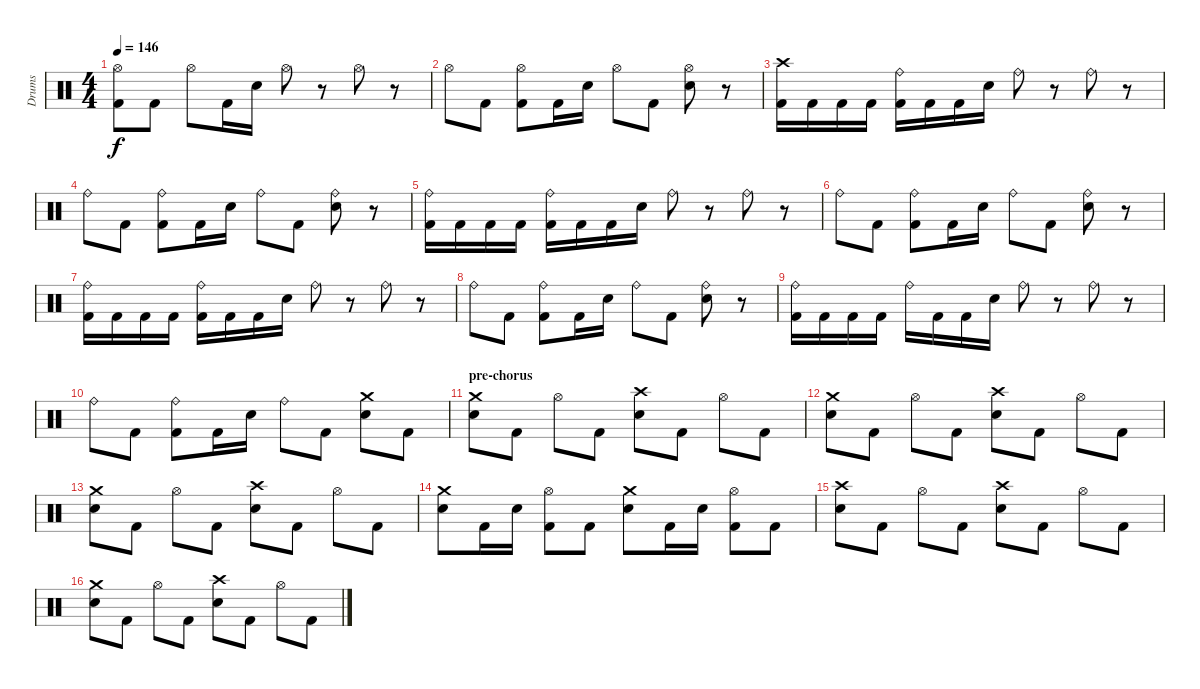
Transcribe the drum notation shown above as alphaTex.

\track ("Drums" "Drums") {instrument percussion}
\staff {score}
\articulation defaults
\ts (4 4)
\tempo 146
\clef neutral
\ks c
("Hi-Hat (open)" "Kick (hit) 2").8{dy f} "Kick (hit) 2".8 "Hi-Hat (open)".8 "Kick (hit) 2".16 "Electric Snare (hit)".16 "Hi-Hat (open)".8 r.8 "Hi-Hat (open)".8 r.8 |
"Hi-Hat (open)".8 "Kick (hit) 2".8 ("Hi-Hat (open)" "Kick (hit) 2").8 "Kick (hit) 2".16 "Electric Snare (hit)".16 "Hi-Hat (open)".8 "Kick (hit) 2".8 ("Hi-Hat (open)" "Electric Snare (hit)").8 r.8 |
("Crash high (hit)" "Kick (hit) 2").16 "Kick (hit) 2".16 "Kick (hit) 2".16 "Kick (hit) 2".16 ("Ride (bell)" "Kick (hit) 2").16 "Kick (hit) 2".16 "Kick (hit) 2".16 "Electric Snare (hit)".16 "Ride (bell)".8 r.8 "Ride (bell)".8 r.8 |
"Ride (bell)".8 "Kick (hit) 2".8 ("Ride (bell)" "Kick (hit) 2").8 "Kick (hit) 2".16 "Electric Snare (hit)".16 "Ride (bell)".8 "Kick (hit) 2".8 ("Ride (bell)" "Electric Snare (hit)").8 r.8 |
("Ride (bell)" "Kick (hit) 2").16 "Kick (hit) 2".16 "Kick (hit) 2".16 "Kick (hit) 2".16 ("Ride (bell)" "Kick (hit) 2").16 "Kick (hit) 2".16 "Kick (hit) 2".16 "Electric Snare (hit)".16 "Ride (bell)".8 r.8 "Ride (bell)".8 r.8 |
"Ride (bell)".8 "Kick (hit) 2".8 ("Ride (bell)" "Kick (hit) 2").8 "Kick (hit) 2".16 "Electric Snare (hit)".16 "Ride (bell)".8 "Kick (hit) 2".8 ("Ride (bell)" "Electric Snare (hit)").8 r.8 |
("Ride (bell)" "Kick (hit) 2").16 "Kick (hit) 2".16 "Kick (hit) 2".16 "Kick (hit) 2".16 ("Ride (bell)" "Kick (hit) 2").16 "Kick (hit) 2".16 "Kick (hit) 2".16 "Electric Snare (hit)".16 "Ride (bell)".8 r.8 "Ride (bell)".8 r.8 |
"Ride (bell)".8 "Kick (hit) 2".8 ("Ride (bell)" "Kick (hit) 2").8 "Kick (hit) 2".16 "Electric Snare (hit)".16 "Ride (bell)".8 "Kick (hit) 2".8 ("Ride (bell)" "Electric Snare (hit)").8 r.8 |
("Ride (bell)" "Kick (hit) 2").16 "Kick (hit) 2".16 "Kick (hit) 2".16 "Kick (hit) 2".16 "Ride (bell)".16 "Kick (hit) 2".16 "Kick (hit) 2".16 "Electric Snare (hit)".16 "Ride (bell)".8 r.8 "Ride (bell)".8 r.8 |
"Ride (bell)".8 "Kick (hit) 2".8 ("Ride (bell)" "Kick (hit) 2").8 "Kick (hit) 2".16 "Electric Snare (hit)".16 "Ride (bell)".8 "Kick (hit) 2".8 ("Crash medium (hit)" "Electric Snare (hit)").8 "Kick (hit) 2".8 |
\section ("" "pre-chorus")
("Crash medium (hit)" "Electric Snare (hit)").8 "Kick (hit) 2".8 "Hi-Hat (open)".8 "Kick (hit) 2".8 ("Crash high (hit)" "Electric Snare (hit)").8 "Kick (hit) 2".8 "Hi-Hat (open)".8 "Kick (hit) 2".8 |
("Crash medium (hit)" "Electric Snare (hit)").8 "Kick (hit) 2".8 "Hi-Hat (open)".8 "Kick (hit) 2".8 ("Crash high (hit)" "Electric Snare (hit)").8 "Kick (hit) 2".8 "Hi-Hat (open)".8 "Kick (hit) 2".8 |
("Crash medium (hit)" "Electric Snare (hit)").8 "Kick (hit) 2".8 "Hi-Hat (open)".8 "Kick (hit) 2".8 ("Crash high (hit)" "Electric Snare (hit)").8 "Kick (hit) 2".8 "Hi-Hat (open)".8 "Kick (hit) 2".8 |
("Crash medium (hit)" "Electric Snare (hit)").8 "Kick (hit) 2".16 "Electric Snare (hit)".16 ("Hi-Hat (open)" "Kick (hit) 2").8 "Kick (hit) 2".8 ("Crash medium (hit)" "Electric Snare (hit)").8 "Kick (hit) 2".16 "Electric Snare (hit)".16 ("Hi-Hat (open)" "Kick (hit) 2").8 "Kick (hit) 2".8 |
("Crash high (hit)" "Electric Snare (hit)").8 "Kick (hit) 2".8 "Hi-Hat (open)".8 "Kick (hit) 2".8 ("Crash high (hit)" "Electric Snare (hit)").8 "Kick (hit) 2".8 "Hi-Hat (open)".8 "Kick (hit) 2".8 |
("Crash medium (hit)" "Electric Snare (hit)").8 "Kick (hit) 2".8 "Hi-Hat (open)".8 "Kick (hit) 2".8 ("Crash high (hit)" "Electric Snare (hit)").8 "Kick (hit) 2".8 "Hi-Hat (open)".8 "Kick (hit) 2".8
